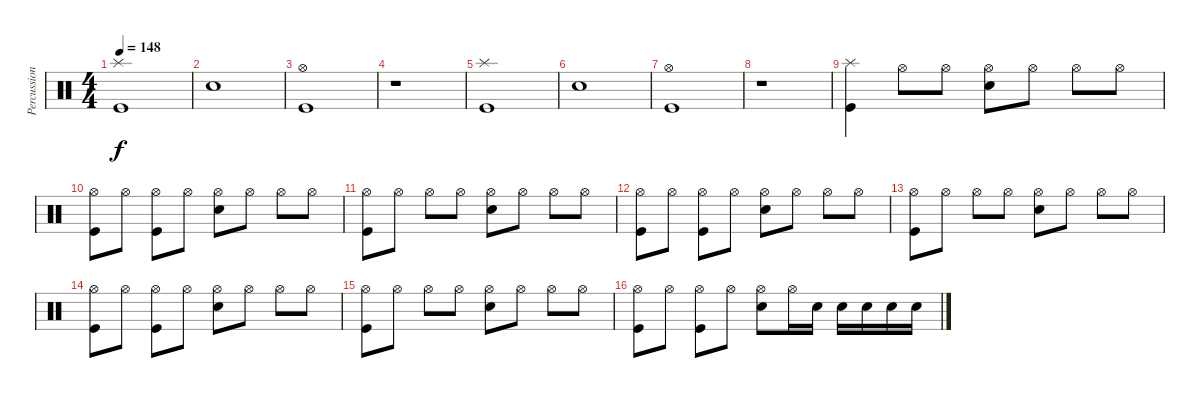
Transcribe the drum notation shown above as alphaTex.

\track ("Percussion" "Percussion") {instrument percussion}
\staff {score}
\articulation defaults
\ts (4 4)
\tempo 148
\clef neutral
\ks c
("Splash (hit)" "Kick (hit)").1{dy f} |
"Snare (hit) 2".1 |
("Hi-Hat (open)" "Kick (hit)").1 |
r.1 |
("Splash (hit)" "Kick (hit)").1 |
"Snare (hit) 2".1 |
("Hi-Hat (open)" "Kick (hit)").1 |
r.1 |
("Splash (hit)" "Kick (hit)").4 "Hi-Hat (open)".8 "Hi-Hat (open)".8 ("Hi-Hat (open)" "Snare (hit) 2").8 "Hi-Hat (open)".8 "Hi-Hat (open)".8 "Hi-Hat (open)".8 |
("Hi-Hat (open)" "Kick (hit)").8 "Hi-Hat (open)".8 ("Hi-Hat (open)" "Kick (hit)").8 "Hi-Hat (open)".8 ("Hi-Hat (open)" "Snare (hit) 2").8 "Hi-Hat (open)".8 "Hi-Hat (open)".8 "Hi-Hat (open)".8 |
("Hi-Hat (open)" "Kick (hit)").8 "Hi-Hat (open)".8 "Hi-Hat (open)".8 "Hi-Hat (open)".8 ("Hi-Hat (open)" "Snare (hit) 2").8 "Hi-Hat (open)".8 "Hi-Hat (open)".8 "Hi-Hat (open)".8 |
("Hi-Hat (open)" "Kick (hit)").8 "Hi-Hat (open)".8 ("Hi-Hat (open)" "Kick (hit)").8 "Hi-Hat (open)".8 ("Hi-Hat (open)" "Snare (hit) 2").8 "Hi-Hat (open)".8 "Hi-Hat (open)".8 "Hi-Hat (open)".8 |
("Hi-Hat (open)" "Kick (hit)").8 "Hi-Hat (open)".8 "Hi-Hat (open)".8 "Hi-Hat (open)".8 ("Hi-Hat (open)" "Snare (hit) 2").8 "Hi-Hat (open)".8 "Hi-Hat (open)".8 "Hi-Hat (open)".8 |
("Hi-Hat (open)" "Kick (hit)").8 "Hi-Hat (open)".8 ("Hi-Hat (open)" "Kick (hit)").8 "Hi-Hat (open)".8 ("Hi-Hat (open)" "Snare (hit) 2").8 "Hi-Hat (open)".8 "Hi-Hat (open)".8 "Hi-Hat (open)".8 |
("Hi-Hat (open)" "Kick (hit)").8 "Hi-Hat (open)".8 "Hi-Hat (open)".8 "Hi-Hat (open)".8 ("Hi-Hat (open)" "Snare (hit) 2").8 "Hi-Hat (open)".8 "Hi-Hat (open)".8 "Hi-Hat (open)".8 |
("Hi-Hat (open)" "Kick (hit)").8 "Hi-Hat (open)".8 ("Hi-Hat (open)" "Kick (hit)").8 "Hi-Hat (open)".8 ("Hi-Hat (open)" "Snare (hit) 2").8 "Hi-Hat (open)".16 "Snare (hit) 2".16 "Snare (hit) 2".16 "Snare (hit) 2".16 "Snare (hit) 2".16 "Snare (hit) 2".16
